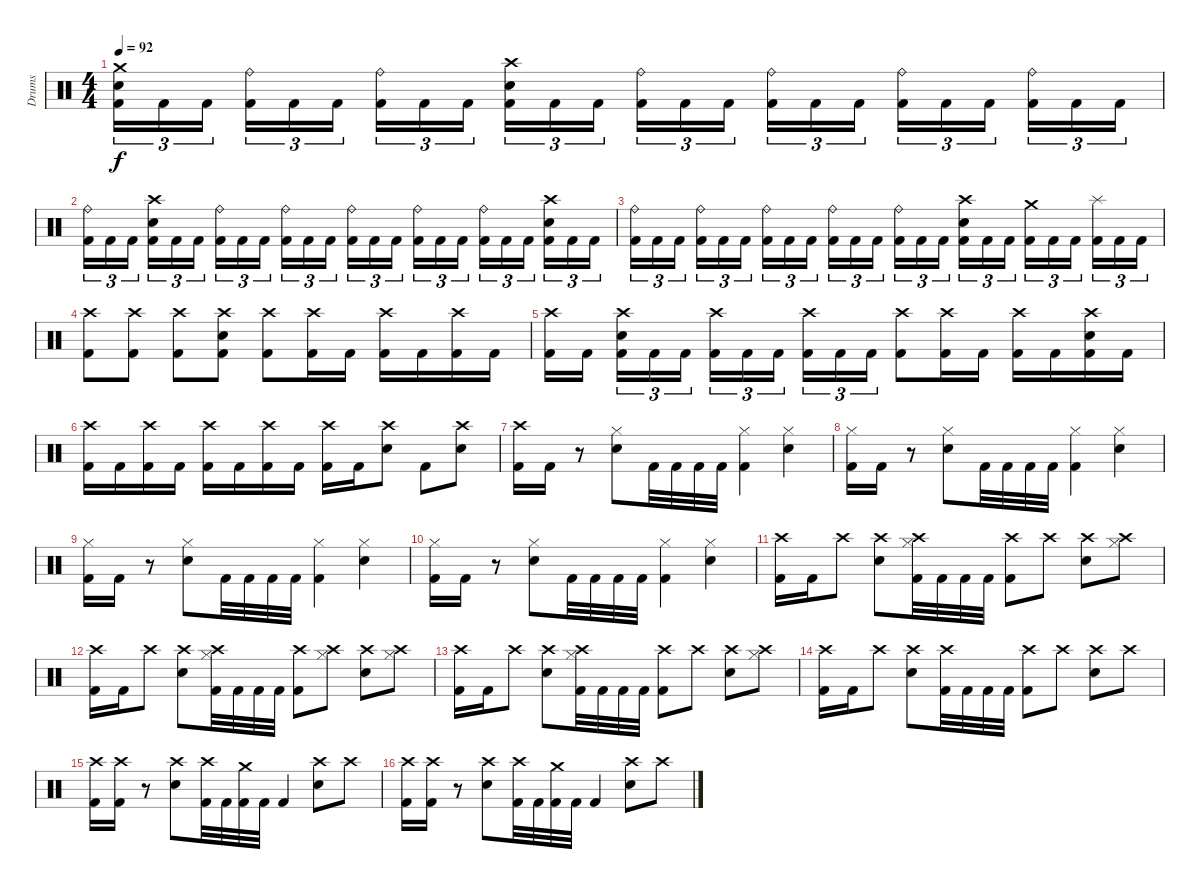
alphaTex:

\track ("Drums" "Drums") {instrument percussion}
\staff {score}
\articulation defaults
\ts (4 4)
\tempo 92
\clef neutral
\ks c
("Crash medium (hit)" "Snare (hit) 2" "Kick (hit) 2").16{tu (3 2) dy f} "Kick (hit) 2".16{tu (3 2)} "Kick (hit) 2".16{tu (3 2)} ("Ride (bell)" "Kick (hit) 2").16{tu (3 2)} "Kick (hit) 2".16{tu (3 2)} "Kick (hit) 2".16{tu (3 2)} ("Ride (bell)" "Kick (hit) 2").16{tu (3 2)} "Kick (hit) 2".16{tu (3 2)} "Kick (hit) 2".16{tu (3 2)} ("Crash high (hit)" "Snare (hit) 2" "Kick (hit) 2").16{tu (3 2)} "Kick (hit) 2".16{tu (3 2)} "Kick (hit) 2".16{tu (3 2)} ("Ride (bell)" "Kick (hit) 2").16{tu (3 2)} "Kick (hit) 2".16{tu (3 2)} "Kick (hit) 2".16{tu (3 2)} ("Ride (bell)" "Kick (hit) 2").16{tu (3 2)} "Kick (hit) 2".16{tu (3 2)} "Kick (hit) 2".16{tu (3 2)} ("Ride (bell)" "Kick (hit) 2").16{tu (3 2)} "Kick (hit) 2".16{tu (3 2)} "Kick (hit) 2".16{tu (3 2)} ("Ride (bell)" "Kick (hit) 2").16{tu (3 2)} "Kick (hit) 2".16{tu (3 2)} "Kick (hit) 2".16{tu (3 2)} |
("Ride (bell)" "Kick (hit) 2").16{tu (3 2)} "Kick (hit) 2".16{tu (3 2)} "Kick (hit) 2".16{tu (3 2)} ("Crash high (hit)" "Snare (hit) 2" "Kick (hit) 2").16{tu (3 2)} "Kick (hit) 2".16{tu (3 2)} "Kick (hit) 2".16{tu (3 2)} ("Ride (bell)" "Kick (hit) 2").16{tu (3 2)} "Kick (hit) 2".16{tu (3 2)} "Kick (hit) 2".16{tu (3 2)} ("Ride (bell)" "Kick (hit) 2").16{tu (3 2)} "Kick (hit) 2".16{tu (3 2)} "Kick (hit) 2".16{tu (3 2)} ("Ride (bell)" "Kick (hit) 2").16{tu (3 2)} "Kick (hit) 2".16{tu (3 2)} "Kick (hit) 2".16{tu (3 2)} ("Ride (bell)" "Kick (hit) 2").16{tu (3 2)} "Kick (hit) 2".16{tu (3 2)} "Kick (hit) 2".16{tu (3 2)} ("Ride (bell)" "Kick (hit) 2").16{tu (3 2)} "Kick (hit) 2".16{tu (3 2)} "Kick (hit) 2".16{tu (3 2)} ("Crash high (hit)" "Snare (hit) 2" "Kick (hit) 2").16{tu (3 2)} "Kick (hit) 2".16{tu (3 2)} "Kick (hit) 2".16{tu (3 2)} |
("Ride (bell)" "Kick (hit) 2").16{tu (3 2)} "Kick (hit) 2".16{tu (3 2)} "Kick (hit) 2".16{tu (3 2)} ("Ride (bell)" "Kick (hit) 2").16{tu (3 2)} "Kick (hit) 2".16{tu (3 2)} "Kick (hit) 2".16{tu (3 2)} ("Ride (bell)" "Kick (hit) 2").16{tu (3 2)} "Kick (hit) 2".16{tu (3 2)} "Kick (hit) 2".16{tu (3 2)} ("Ride (bell)" "Kick (hit) 2").16{tu (3 2)} "Kick (hit) 2".16{tu (3 2)} "Kick (hit) 2".16{tu (3 2)} ("Ride (bell)" "Kick (hit) 2").16{tu (3 2)} "Kick (hit) 2".16{tu (3 2)} "Kick (hit) 2".16{tu (3 2)} ("Crash high (hit)" "Snare (hit) 2" "Kick (hit) 2").16{tu (3 2)} "Kick (hit) 2".16{tu (3 2)} "Kick (hit) 2".16{tu (3 2)} ("Crash medium (hit)" "Kick (hit) 2").16{tu (3 2)} "Kick (hit) 2".16{tu (3 2)} "Kick (hit) 2".16{tu (3 2)} ("Splash (hit)" "Kick (hit) 2").16{tu (3 2)} "Kick (hit) 2".16{tu (3 2)} "Kick (hit) 2".16{tu (3 2)} |
("Crash high (hit)" "Kick (hit) 2").8 ("Crash high (hit)" "Kick (hit) 2").8 ("Crash high (hit)" "Kick (hit) 2").8 ("Crash high (hit)" "Snare (hit) 2" "Kick (hit) 2").8 ("Crash high (hit)" "Kick (hit) 2").8 ("Crash high (hit)" "Kick (hit) 2").16 "Kick (hit) 2".16 ("Crash high (hit)" "Kick (hit) 2").16 "Kick (hit) 2".16 ("Crash high (hit)" "Kick (hit) 2").16 "Kick (hit) 2".16 |
("Crash high (hit)" "Kick (hit) 2").16 "Kick (hit) 2".16 ("Crash high (hit)" "Snare (hit) 2" "Kick (hit) 2").16{tu (3 2)} "Kick (hit) 2".16{tu (3 2)} "Kick (hit) 2".16{tu (3 2)} ("Crash high (hit)" "Kick (hit) 2").16{tu (3 2)} "Kick (hit) 2".16{tu (3 2)} "Kick (hit) 2".16{tu (3 2)} ("Crash high (hit)" "Kick (hit) 2").16{tu (3 2)} "Kick (hit) 2".16{tu (3 2)} "Kick (hit) 2".16{tu (3 2)} ("Crash high (hit)" "Kick (hit) 2").8 ("Crash high (hit)" "Kick (hit) 2").16 "Kick (hit) 2".16 ("Crash high (hit)" "Kick (hit) 2").16 "Kick (hit) 2".16 ("Crash high (hit)" "Snare (hit) 2" "Kick (hit) 2").16 "Kick (hit) 2".16 |
("Crash high (hit)" "Kick (hit) 2").16 "Kick (hit) 2".16 ("Crash high (hit)" "Kick (hit) 2").16 "Kick (hit) 2".16 ("Crash high (hit)" "Kick (hit) 2").16 "Kick (hit) 2".16 ("Crash high (hit)" "Kick (hit) 2").16 "Kick (hit) 2".16 ("Crash high (hit)" "Kick (hit) 2").16 "Kick (hit) 2".16 ("Crash high (hit)" "Snare (hit) 2").8 "Kick (hit) 2".8 ("Crash high (hit)" "Snare (hit) 2").8 |
("Crash high (hit)" "Kick (hit) 2").16 "Kick (hit) 2".16 r.8 ("Hi-Hat (closed)" "Snare (hit) 2").8 "Kick (hit) 2".32 "Kick (hit) 2".32 "Kick (hit) 2".32 "Kick (hit) 2".32 ("Hi-Hat (closed)" "Kick (hit) 2").4 ("Hi-Hat (closed)" "Snare (hit) 2").4 |
("Hi-Hat (closed)" "Kick (hit) 2").16 "Kick (hit) 2".16 r.8 ("Hi-Hat (closed)" "Snare (hit) 2").8 "Kick (hit) 2".32 "Kick (hit) 2".32 "Kick (hit) 2".32 "Kick (hit) 2".32 ("Hi-Hat (closed)" "Kick (hit) 2").4 ("Hi-Hat (closed)" "Snare (hit) 2").4 |
("Hi-Hat (closed)" "Kick (hit) 2").16 "Kick (hit) 2".16 r.8 ("Hi-Hat (closed)" "Snare (hit) 2").8 "Kick (hit) 2".32 "Kick (hit) 2".32 "Kick (hit) 2".32 "Kick (hit) 2".32 ("Hi-Hat (closed)" "Kick (hit) 2").4 ("Hi-Hat (closed)" "Snare (hit) 2").4 |
("Hi-Hat (closed)" "Kick (hit) 2").16 "Kick (hit) 2".16 r.8 ("Hi-Hat (closed)" "Snare (hit) 2").8 "Kick (hit) 2".32 "Kick (hit) 2".32 "Kick (hit) 2".32 "Kick (hit) 2".32 ("Hi-Hat (closed)" "Kick (hit) 2").4 ("Hi-Hat (closed)" "Snare (hit) 2").4 |
("Crash high (hit)" "Kick (hit) 2").16 "Kick (hit) 2".16 "Crash high (hit)".8 ("Crash high (hit)" "Snare (hit) 2").8 ("Crash high (hit)" "Hi-Hat (closed)" "Kick (hit) 2").32 "Kick (hit) 2".32 "Kick (hit) 2".32 "Kick (hit) 2".32 ("Crash high (hit)" "Kick (hit) 2").8 "Crash high (hit)".8 ("Crash high (hit)" "Snare (hit) 2").8 ("Crash high (hit)" "Hi-Hat (closed)").8 |
("Crash high (hit)" "Kick (hit) 2").16 "Kick (hit) 2".16 "Crash high (hit)".8 ("Crash high (hit)" "Snare (hit) 2").8 ("Crash high (hit)" "Hi-Hat (closed)" "Kick (hit) 2").32 "Kick (hit) 2".32 "Kick (hit) 2".32 "Kick (hit) 2".32 ("Crash high (hit)" "Kick (hit) 2").8 ("Crash high (hit)" "Hi-Hat (closed)").8 ("Crash high (hit)" "Snare (hit) 2").8 ("Crash high (hit)" "Hi-Hat (closed)").8 |
("Crash high (hit)" "Kick (hit) 2").16 "Kick (hit) 2".16 "Crash high (hit)".8 ("Crash high (hit)" "Snare (hit) 2").8 ("Crash high (hit)" "Hi-Hat (closed)" "Kick (hit) 2").32 "Kick (hit) 2".32 "Kick (hit) 2".32 "Kick (hit) 2".32 ("Crash high (hit)" "Kick (hit) 2").8 "Crash high (hit)".8 ("Crash high (hit)" "Snare (hit) 2").8 ("Crash high (hit)" "Hi-Hat (closed)").8 |
("Crash high (hit)" "Kick (hit) 2").16 "Kick (hit) 2".16 "Crash high (hit)".8 ("Crash high (hit)" "Snare (hit) 2").8 ("Crash high (hit)" "Kick (hit) 2").32 "Kick (hit) 2".32 "Kick (hit) 2".32 "Kick (hit) 2".32 ("Crash high (hit)" "Kick (hit) 2").8 "Crash high (hit)".8 ("Crash high (hit)" "Snare (hit) 2").8 "Crash high (hit)".8 |
("Crash high (hit)" "Kick (hit) 2").16 ("Crash high (hit)" "Kick (hit) 2").16 r.8 ("Crash high (hit)" "Snare (hit) 2").8 ("Crash high (hit)" "Kick (hit) 2").32 "Kick (hit) 2".32 ("Crash medium (hit)" "Kick (hit) 2").32 "Kick (hit) 2".32 "Kick (hit) 2".4 ("Crash high (hit)" "Snare (hit) 2").8 "Crash high (hit)".8 |
("Crash high (hit)" "Kick (hit) 2").16 ("Crash high (hit)" "Kick (hit) 2").16 r.8 ("Crash high (hit)" "Snare (hit) 2").8 ("Crash high (hit)" "Kick (hit) 2").32 "Kick (hit) 2".32 ("Crash medium (hit)" "Kick (hit) 2").32 "Kick (hit) 2".32 "Kick (hit) 2".4 ("Crash high (hit)" "Snare (hit) 2").8 "Crash high (hit)".8
